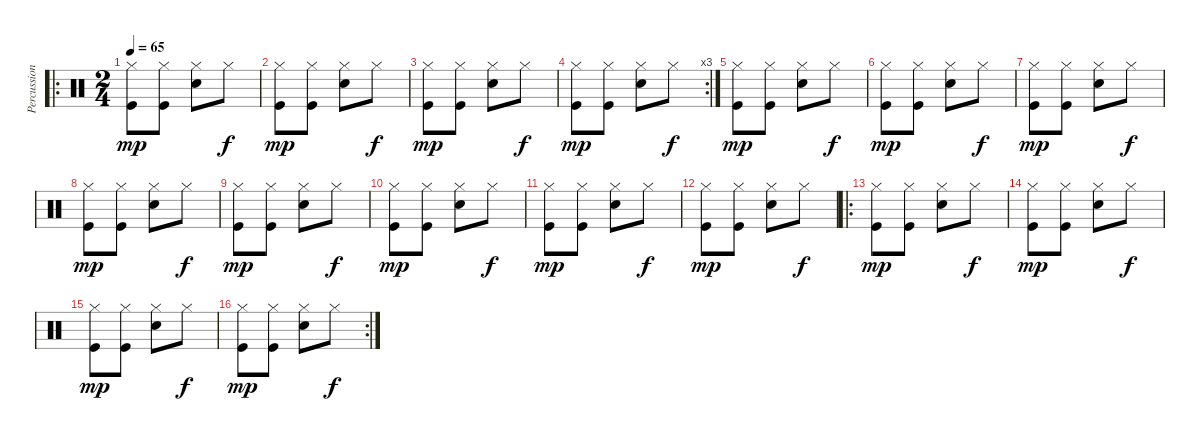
\track ("Percussions" "Percussion") {instrument percussion}
\staff {score}
\articulation defaults
\ro
\ts (2 4)
\tempo 65
\clef neutral
\ks c
("Hi-Hat (closed)" "Kick (hit)").8{dy mp} ("Hi-Hat (closed)" "Kick (hit)").8 ("Hi-Hat (closed)" "Electric Snare (hit)").8 "Hi-Hat (closed)".8{dy f} |
("Hi-Hat (closed)" "Kick (hit)").8{dy mp} ("Hi-Hat (closed)" "Kick (hit)").8 ("Hi-Hat (closed)" "Electric Snare (hit)").8 "Hi-Hat (closed)".8{dy f} |
("Hi-Hat (closed)" "Kick (hit)").8{dy mp} ("Hi-Hat (closed)" "Kick (hit)").8 ("Hi-Hat (closed)" "Electric Snare (hit)").8 "Hi-Hat (closed)".8{dy f} |
\rc 3
("Hi-Hat (closed)" "Kick (hit)").8{dy mp} ("Hi-Hat (closed)" "Kick (hit)").8 ("Hi-Hat (closed)" "Electric Snare (hit)").8 "Hi-Hat (closed)".8{dy f} |
("Hi-Hat (closed)" "Kick (hit)").8{dy mp} ("Hi-Hat (closed)" "Kick (hit)").8 ("Hi-Hat (closed)" "Electric Snare (hit)").8 "Hi-Hat (closed)".8{dy f} |
("Hi-Hat (closed)" "Kick (hit)").8{dy mp} ("Hi-Hat (closed)" "Kick (hit)").8 ("Hi-Hat (closed)" "Electric Snare (hit)").8 "Hi-Hat (closed)".8{dy f} |
("Hi-Hat (closed)" "Kick (hit)").8{dy mp} ("Hi-Hat (closed)" "Kick (hit)").8 ("Hi-Hat (closed)" "Electric Snare (hit)").8 "Hi-Hat (closed)".8{dy f} |
("Hi-Hat (closed)" "Kick (hit)").8{dy mp} ("Hi-Hat (closed)" "Kick (hit)").8 ("Hi-Hat (closed)" "Electric Snare (hit)").8 "Hi-Hat (closed)".8{dy f} |
("Hi-Hat (closed)" "Kick (hit)").8{dy mp} ("Hi-Hat (closed)" "Kick (hit)").8 ("Hi-Hat (closed)" "Electric Snare (hit)").8 "Hi-Hat (closed)".8{dy f} |
("Hi-Hat (closed)" "Kick (hit)").8{dy mp} ("Hi-Hat (closed)" "Kick (hit)").8 ("Hi-Hat (closed)" "Electric Snare (hit)").8 "Hi-Hat (closed)".8{dy f} |
("Hi-Hat (closed)" "Kick (hit)").8{dy mp} ("Hi-Hat (closed)" "Kick (hit)").8 ("Hi-Hat (closed)" "Electric Snare (hit)").8 "Hi-Hat (closed)".8{dy f} |
("Hi-Hat (closed)" "Kick (hit)").8{dy mp} ("Hi-Hat (closed)" "Kick (hit)").8 ("Hi-Hat (closed)" "Electric Snare (hit)").8 "Hi-Hat (closed)".8{dy f} |
\ro
("Hi-Hat (closed)" "Kick (hit)").8{dy mp} ("Hi-Hat (closed)" "Kick (hit)").8 ("Hi-Hat (closed)" "Electric Snare (hit)").8 "Hi-Hat (closed)".8{dy f} |
("Hi-Hat (closed)" "Kick (hit)").8{dy mp} ("Hi-Hat (closed)" "Kick (hit)").8 ("Hi-Hat (closed)" "Electric Snare (hit)").8 "Hi-Hat (closed)".8{dy f} |
("Hi-Hat (closed)" "Kick (hit)").8{dy mp} ("Hi-Hat (closed)" "Kick (hit)").8 ("Hi-Hat (closed)" "Electric Snare (hit)").8 "Hi-Hat (closed)".8{dy f} |
\rc 2
("Hi-Hat (closed)" "Kick (hit)").8{dy mp} ("Hi-Hat (closed)" "Kick (hit)").8 ("Hi-Hat (closed)" "Electric Snare (hit)").8 "Hi-Hat (closed)".8{dy f}
